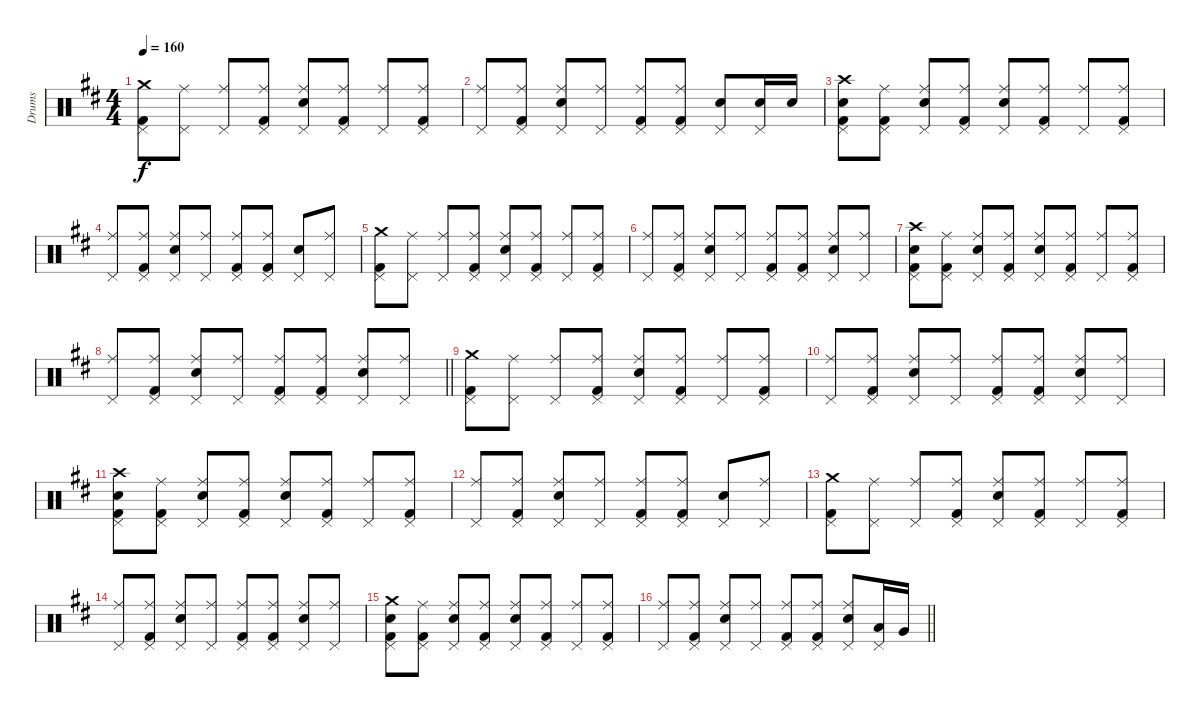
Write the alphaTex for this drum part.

\track ("Drums" "Drums") {instrument percussion}
\staff {score}
\articulation defaults
\ts (4 4)
\tempo 160
\clef neutral
\ks d
("Crash medium (hit)" "Pedal Hi-Hat (hit)" "Kick (hit) 2").8{dy f} ("Ride (middle)" "Pedal Hi-Hat (hit)").8 ("Ride (middle)" "Pedal Hi-Hat (hit)").8 ("Ride (middle)" "Pedal Hi-Hat (hit)" "Kick (hit) 2").8 ("Ride (middle)" "Electric Snare (hit)" "Pedal Hi-Hat (hit)").8 ("Ride (middle)" "Pedal Hi-Hat (hit)" "Kick (hit) 2").8 ("Ride (middle)" "Pedal Hi-Hat (hit)").8 ("Ride (middle)" "Pedal Hi-Hat (hit)" "Kick (hit) 2").8 |
("Ride (middle)" "Pedal Hi-Hat (hit)").8 ("Ride (middle)" "Pedal Hi-Hat (hit)" "Kick (hit) 2").8 ("Ride (middle)" "Electric Snare (hit)" "Pedal Hi-Hat (hit)").8 ("Ride (middle)" "Pedal Hi-Hat (hit)").8 ("Ride (middle)" "Pedal Hi-Hat (hit)" "Kick (hit) 2").8 ("Ride (middle)" "Pedal Hi-Hat (hit)" "Kick (hit) 2").8 ("Snare (hit) 2" "Pedal Hi-Hat (hit)").8 ("Snare (hit) 2" "Pedal Hi-Hat (hit)").16 "Snare (hit) 2".16 |
("Crash high (hit)" "Electric Snare (hit)" "Pedal Hi-Hat (hit)" "Kick (hit) 2").8 ("Ride (middle)" "Pedal Hi-Hat (hit)" "Kick (hit) 2").8 ("Ride (middle)" "Electric Snare (hit)" "Pedal Hi-Hat (hit)").8 ("Ride (middle)" "Pedal Hi-Hat (hit)" "Kick (hit) 2").8 ("Ride (middle)" "Electric Snare (hit)" "Pedal Hi-Hat (hit)").8 ("Ride (middle)" "Pedal Hi-Hat (hit)" "Kick (hit) 2").8 ("Ride (middle)" "Pedal Hi-Hat (hit)").8 ("Ride (middle)" "Pedal Hi-Hat (hit)" "Kick (hit) 2").8 |
("Ride (middle)" "Pedal Hi-Hat (hit)").8 ("Ride (middle)" "Pedal Hi-Hat (hit)" "Kick (hit) 2").8 ("Ride (middle)" "Electric Snare (hit)" "Pedal Hi-Hat (hit)").8 ("Ride (middle)" "Pedal Hi-Hat (hit)").8 ("Ride (middle)" "Pedal Hi-Hat (hit)" "Kick (hit) 2").8 ("Ride (middle)" "Pedal Hi-Hat (hit)" "Kick (hit) 2").8 ("Electric Snare (hit)" "Pedal Hi-Hat (hit)").8 ("Ride (middle)" "Pedal Hi-Hat (hit)").8 |
("Crash medium (hit)" "Pedal Hi-Hat (hit)" "Kick (hit) 2").8 ("Ride (middle)" "Pedal Hi-Hat (hit)").8 ("Ride (middle)" "Pedal Hi-Hat (hit)").8 ("Ride (middle)" "Pedal Hi-Hat (hit)" "Kick (hit) 2").8 ("Ride (middle)" "Electric Snare (hit)" "Pedal Hi-Hat (hit)").8 ("Ride (middle)" "Pedal Hi-Hat (hit)" "Kick (hit) 2").8 ("Ride (middle)" "Pedal Hi-Hat (hit)").8 ("Ride (middle)" "Pedal Hi-Hat (hit)" "Kick (hit) 2").8 |
("Ride (middle)" "Pedal Hi-Hat (hit)").8 ("Ride (middle)" "Pedal Hi-Hat (hit)" "Kick (hit) 2").8 ("Ride (middle)" "Electric Snare (hit)" "Pedal Hi-Hat (hit)").8 ("Ride (middle)" "Pedal Hi-Hat (hit)").8 ("Ride (middle)" "Pedal Hi-Hat (hit)" "Kick (hit) 2").8 ("Ride (middle)" "Pedal Hi-Hat (hit)" "Kick (hit) 2").8 ("Ride (middle)" "Electric Snare (hit)" "Pedal Hi-Hat (hit)").8 ("Ride (middle)" "Pedal Hi-Hat (hit)").8 |
("Crash high (hit)" "Electric Snare (hit)" "Pedal Hi-Hat (hit)" "Kick (hit) 2").8 ("Ride (middle)" "Pedal Hi-Hat (hit)" "Kick (hit) 2").8 ("Ride (middle)" "Electric Snare (hit)" "Pedal Hi-Hat (hit)").8 ("Ride (middle)" "Pedal Hi-Hat (hit)" "Kick (hit) 2").8 ("Ride (middle)" "Electric Snare (hit)" "Pedal Hi-Hat (hit)").8 ("Ride (middle)" "Pedal Hi-Hat (hit)" "Kick (hit) 2").8 ("Ride (middle)" "Pedal Hi-Hat (hit)").8 ("Ride (middle)" "Pedal Hi-Hat (hit)" "Kick (hit) 2").8 |
\barLineRight lightlight
("Ride (middle)" "Pedal Hi-Hat (hit)").8 ("Ride (middle)" "Pedal Hi-Hat (hit)" "Kick (hit) 2").8 ("Ride (middle)" "Electric Snare (hit)" "Pedal Hi-Hat (hit)").8 ("Ride (middle)" "Pedal Hi-Hat (hit)").8 ("Ride (middle)" "Pedal Hi-Hat (hit)" "Kick (hit) 2").8 ("Ride (middle)" "Pedal Hi-Hat (hit)" "Kick (hit) 2").8 ("Ride (middle)" "Electric Snare (hit)" "Pedal Hi-Hat (hit)").8 ("Ride (middle)" "Pedal Hi-Hat (hit)").8 |
("Crash medium (hit)" "Pedal Hi-Hat (hit)" "Kick (hit) 2").8 ("Ride (middle)" "Pedal Hi-Hat (hit)").8 ("Ride (middle)" "Pedal Hi-Hat (hit)").8 ("Ride (middle)" "Pedal Hi-Hat (hit)" "Kick (hit) 2").8 ("Ride (middle)" "Electric Snare (hit)" "Pedal Hi-Hat (hit)").8 ("Ride (middle)" "Pedal Hi-Hat (hit)" "Kick (hit) 2").8 ("Ride (middle)" "Pedal Hi-Hat (hit)").8 ("Ride (middle)" "Pedal Hi-Hat (hit)" "Kick (hit) 2").8 |
("Ride (middle)" "Pedal Hi-Hat (hit)").8 ("Ride (middle)" "Pedal Hi-Hat (hit)" "Kick (hit) 2").8 ("Ride (middle)" "Electric Snare (hit)" "Pedal Hi-Hat (hit)").8 ("Ride (middle)" "Pedal Hi-Hat (hit)").8 ("Ride (middle)" "Pedal Hi-Hat (hit)" "Kick (hit) 2").8 ("Ride (middle)" "Pedal Hi-Hat (hit)" "Kick (hit) 2").8 ("Ride (middle)" "Electric Snare (hit)" "Pedal Hi-Hat (hit)").8 ("Ride (middle)" "Pedal Hi-Hat (hit)").8 |
("Crash high (hit)" "Electric Snare (hit)" "Pedal Hi-Hat (hit)" "Kick (hit) 2").8 ("Ride (middle)" "Pedal Hi-Hat (hit)" "Kick (hit) 2").8 ("Ride (middle)" "Electric Snare (hit)" "Pedal Hi-Hat (hit)").8 ("Ride (middle)" "Pedal Hi-Hat (hit)" "Kick (hit) 2").8 ("Ride (middle)" "Electric Snare (hit)" "Pedal Hi-Hat (hit)").8 ("Ride (middle)" "Pedal Hi-Hat (hit)" "Kick (hit) 2").8 ("Ride (middle)" "Pedal Hi-Hat (hit)").8 ("Ride (middle)" "Pedal Hi-Hat (hit)" "Kick (hit) 2").8 |
("Ride (middle)" "Pedal Hi-Hat (hit)").8 ("Ride (middle)" "Pedal Hi-Hat (hit)" "Kick (hit) 2").8 ("Ride (middle)" "Electric Snare (hit)" "Pedal Hi-Hat (hit)").8 ("Ride (middle)" "Pedal Hi-Hat (hit)").8 ("Ride (middle)" "Pedal Hi-Hat (hit)" "Kick (hit) 2").8 ("Ride (middle)" "Pedal Hi-Hat (hit)" "Kick (hit) 2").8 ("Electric Snare (hit)" "Pedal Hi-Hat (hit)").8 ("Ride (middle)" "Pedal Hi-Hat (hit)").8 |
("Crash medium (hit)" "Pedal Hi-Hat (hit)" "Kick (hit) 2").8 ("Ride (middle)" "Pedal Hi-Hat (hit)").8 ("Ride (middle)" "Pedal Hi-Hat (hit)").8 ("Ride (middle)" "Pedal Hi-Hat (hit)" "Kick (hit) 2").8 ("Ride (middle)" "Electric Snare (hit)" "Pedal Hi-Hat (hit)").8 ("Ride (middle)" "Pedal Hi-Hat (hit)" "Kick (hit) 2").8 ("Ride (middle)" "Pedal Hi-Hat (hit)").8 ("Ride (middle)" "Pedal Hi-Hat (hit)" "Kick (hit) 2").8 |
("Ride (middle)" "Pedal Hi-Hat (hit)").8 ("Ride (middle)" "Pedal Hi-Hat (hit)" "Kick (hit) 2").8 ("Ride (middle)" "Electric Snare (hit)" "Pedal Hi-Hat (hit)").8 ("Ride (middle)" "Pedal Hi-Hat (hit)").8 ("Ride (middle)" "Pedal Hi-Hat (hit)" "Kick (hit) 2").8 ("Ride (middle)" "Pedal Hi-Hat (hit)" "Kick (hit) 2").8 ("Ride (middle)" "Electric Snare (hit)" "Pedal Hi-Hat (hit)").8 ("Ride (middle)" "Pedal Hi-Hat (hit)").8 |
("Crash medium (hit)" "Electric Snare (hit)" "Pedal Hi-Hat (hit)" "Kick (hit) 2").8 ("Ride (middle)" "Pedal Hi-Hat (hit)" "Kick (hit) 2").8 ("Ride (middle)" "Electric Snare (hit)" "Pedal Hi-Hat (hit)").8 ("Ride (middle)" "Pedal Hi-Hat (hit)" "Kick (hit) 2").8 ("Ride (middle)" "Electric Snare (hit)" "Pedal Hi-Hat (hit)").8 ("Ride (middle)" "Pedal Hi-Hat (hit)" "Kick (hit) 2").8 ("Ride (middle)" "Pedal Hi-Hat (hit)").8 ("Ride (middle)" "Pedal Hi-Hat (hit)" "Kick (hit) 2").8 |
\barLineRight lightlight
("Ride (middle)" "Pedal Hi-Hat (hit)").8 ("Ride (middle)" "Pedal Hi-Hat (hit)" "Kick (hit) 2").8 ("Ride (middle)" "Electric Snare (hit)" "Pedal Hi-Hat (hit)").8 ("Ride (middle)" "Pedal Hi-Hat (hit)").8 ("Ride (middle)" "Pedal Hi-Hat (hit)" "Kick (hit) 2").8 ("Ride (middle)" "Pedal Hi-Hat (hit)" "Kick (hit) 2").8 ("Ride (middle)" "Electric Snare (hit)" "Pedal Hi-Hat (hit)").8 ("Low Tom (hit)" "Pedal Hi-Hat (hit)").16 "Very Low Tom (hit)".16
